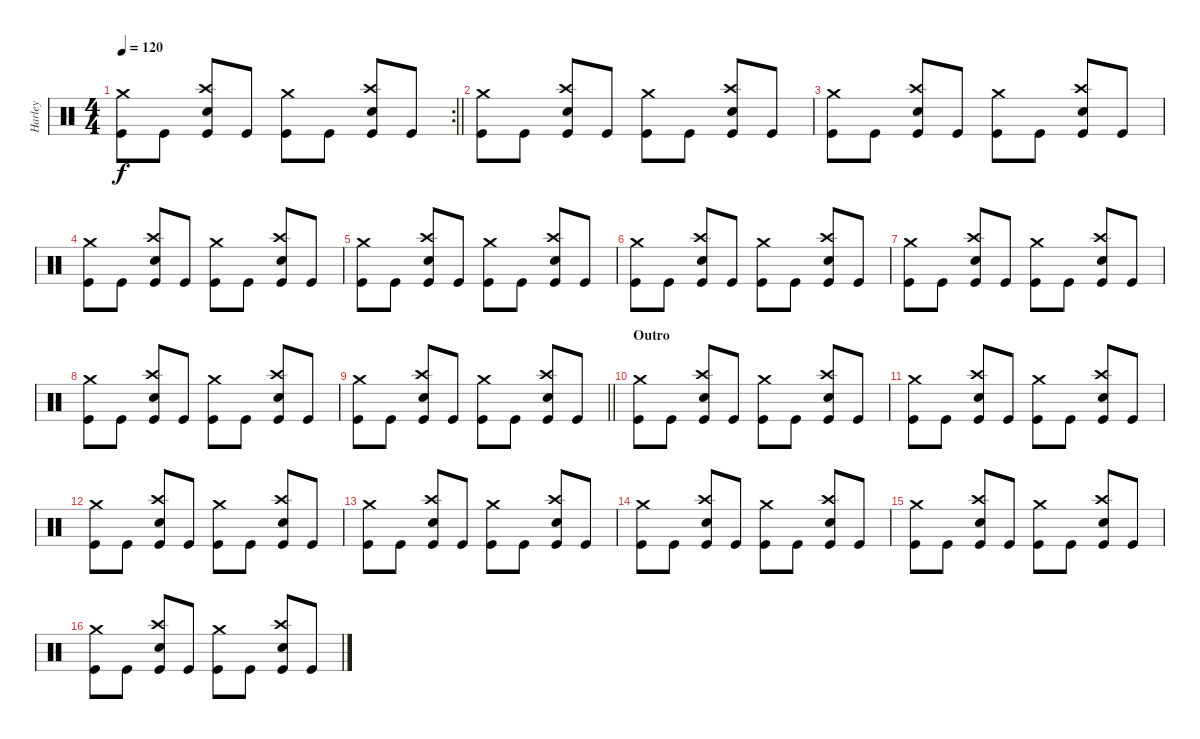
\track ("Harley" "Harley") {instrument percussion}
\staff {score}
\articulation defaults
\rc 2
\ts (4 4)
\tempo 120
\clef neutral
\barLineRight lightlight
\ks c
("Crash medium (hit)" "Kick (hit)").8{dy f} "Kick (hit)".8 ("Crash high (hit)" "Snare (hit) 2" "Kick (hit)").8 "Kick (hit)".8 ("Crash medium (hit)" "Kick (hit)").8 "Kick (hit)".8 ("Crash high (hit)" "Snare (hit) 2" "Kick (hit)").8 "Kick (hit)".8 |
("Crash medium (hit)" "Kick (hit)").8 "Kick (hit)".8 ("Crash high (hit)" "Snare (hit) 2" "Kick (hit)").8 "Kick (hit)".8 ("Crash medium (hit)" "Kick (hit)").8 "Kick (hit)".8 ("Crash high (hit)" "Snare (hit) 2" "Kick (hit)").8 "Kick (hit)".8 |
("Crash medium (hit)" "Kick (hit)").8 "Kick (hit)".8 ("Crash high (hit)" "Snare (hit) 2" "Kick (hit)").8 "Kick (hit)".8 ("Crash medium (hit)" "Kick (hit)").8 "Kick (hit)".8 ("Crash high (hit)" "Snare (hit) 2" "Kick (hit)").8 "Kick (hit)".8 |
("Crash medium (hit)" "Kick (hit)").8 "Kick (hit)".8 ("Crash high (hit)" "Snare (hit) 2" "Kick (hit)").8 "Kick (hit)".8 ("Crash medium (hit)" "Kick (hit)").8 "Kick (hit)".8 ("Crash high (hit)" "Snare (hit) 2" "Kick (hit)").8 "Kick (hit)".8 |
("Crash medium (hit)" "Kick (hit)").8 "Kick (hit)".8 ("Crash high (hit)" "Snare (hit) 2" "Kick (hit)").8 "Kick (hit)".8 ("Crash medium (hit)" "Kick (hit)").8 "Kick (hit)".8 ("Crash high (hit)" "Snare (hit) 2" "Kick (hit)").8 "Kick (hit)".8 |
("Crash medium (hit)" "Kick (hit)").8 "Kick (hit)".8 ("Crash high (hit)" "Snare (hit) 2" "Kick (hit)").8 "Kick (hit)".8 ("Crash medium (hit)" "Kick (hit)").8 "Kick (hit)".8 ("Crash high (hit)" "Snare (hit) 2" "Kick (hit)").8 "Kick (hit)".8 |
("Crash medium (hit)" "Kick (hit)").8 "Kick (hit)".8 ("Crash high (hit)" "Snare (hit) 2" "Kick (hit)").8 "Kick (hit)".8 ("Crash medium (hit)" "Kick (hit)").8 "Kick (hit)".8 ("Crash high (hit)" "Snare (hit) 2" "Kick (hit)").8 "Kick (hit)".8 |
("Crash medium (hit)" "Kick (hit)").8 "Kick (hit)".8 ("Crash high (hit)" "Snare (hit) 2" "Kick (hit)").8 "Kick (hit)".8 ("Crash medium (hit)" "Kick (hit)").8 "Kick (hit)".8 ("Crash high (hit)" "Snare (hit) 2" "Kick (hit)").8 "Kick (hit)".8 |
\barLineRight lightlight
("Crash medium (hit)" "Kick (hit)").8 "Kick (hit)".8 ("Crash high (hit)" "Snare (hit) 2" "Kick (hit)").8 "Kick (hit)".8 ("Crash medium (hit)" "Kick (hit)").8 "Kick (hit)".8 ("Crash high (hit)" "Snare (hit) 2" "Kick (hit)").8 "Kick (hit)".8 |
\section ("" "Outro")
("Crash medium (hit)" "Kick (hit)").8 "Kick (hit)".8 ("Crash high (hit)" "Snare (hit) 2" "Kick (hit)").8 "Kick (hit)".8 ("Crash medium (hit)" "Kick (hit)").8 "Kick (hit)".8 ("Crash high (hit)" "Snare (hit) 2" "Kick (hit)").8 "Kick (hit)".8 |
("Crash medium (hit)" "Kick (hit)").8 "Kick (hit)".8 ("Crash high (hit)" "Snare (hit) 2" "Kick (hit)").8 "Kick (hit)".8 ("Crash medium (hit)" "Kick (hit)").8 "Kick (hit)".8 ("Crash high (hit)" "Snare (hit) 2" "Kick (hit)").8 "Kick (hit)".8 |
("Crash medium (hit)" "Kick (hit)").8 "Kick (hit)".8 ("Crash high (hit)" "Snare (hit) 2" "Kick (hit)").8 "Kick (hit)".8 ("Crash medium (hit)" "Kick (hit)").8 "Kick (hit)".8 ("Crash high (hit)" "Snare (hit) 2" "Kick (hit)").8 "Kick (hit)".8 |
("Crash medium (hit)" "Kick (hit)").8 "Kick (hit)".8 ("Crash high (hit)" "Snare (hit) 2" "Kick (hit)").8 "Kick (hit)".8 ("Crash medium (hit)" "Kick (hit)").8 "Kick (hit)".8 ("Crash high (hit)" "Snare (hit) 2" "Kick (hit)").8 "Kick (hit)".8 |
("Crash medium (hit)" "Kick (hit)").8 "Kick (hit)".8 ("Crash high (hit)" "Snare (hit) 2" "Kick (hit)").8 "Kick (hit)".8 ("Crash medium (hit)" "Kick (hit)").8 "Kick (hit)".8 ("Crash high (hit)" "Snare (hit) 2" "Kick (hit)").8 "Kick (hit)".8 |
("Crash medium (hit)" "Kick (hit)").8 "Kick (hit)".8 ("Crash high (hit)" "Snare (hit) 2" "Kick (hit)").8 "Kick (hit)".8 ("Crash medium (hit)" "Kick (hit)").8 "Kick (hit)".8 ("Crash high (hit)" "Snare (hit) 2" "Kick (hit)").8 "Kick (hit)".8 |
("Crash medium (hit)" "Kick (hit)").8 "Kick (hit)".8 ("Crash high (hit)" "Snare (hit) 2" "Kick (hit)").8 "Kick (hit)".8 ("Crash medium (hit)" "Kick (hit)").8 "Kick (hit)".8 ("Crash high (hit)" "Snare (hit) 2" "Kick (hit)").8 "Kick (hit)".8
